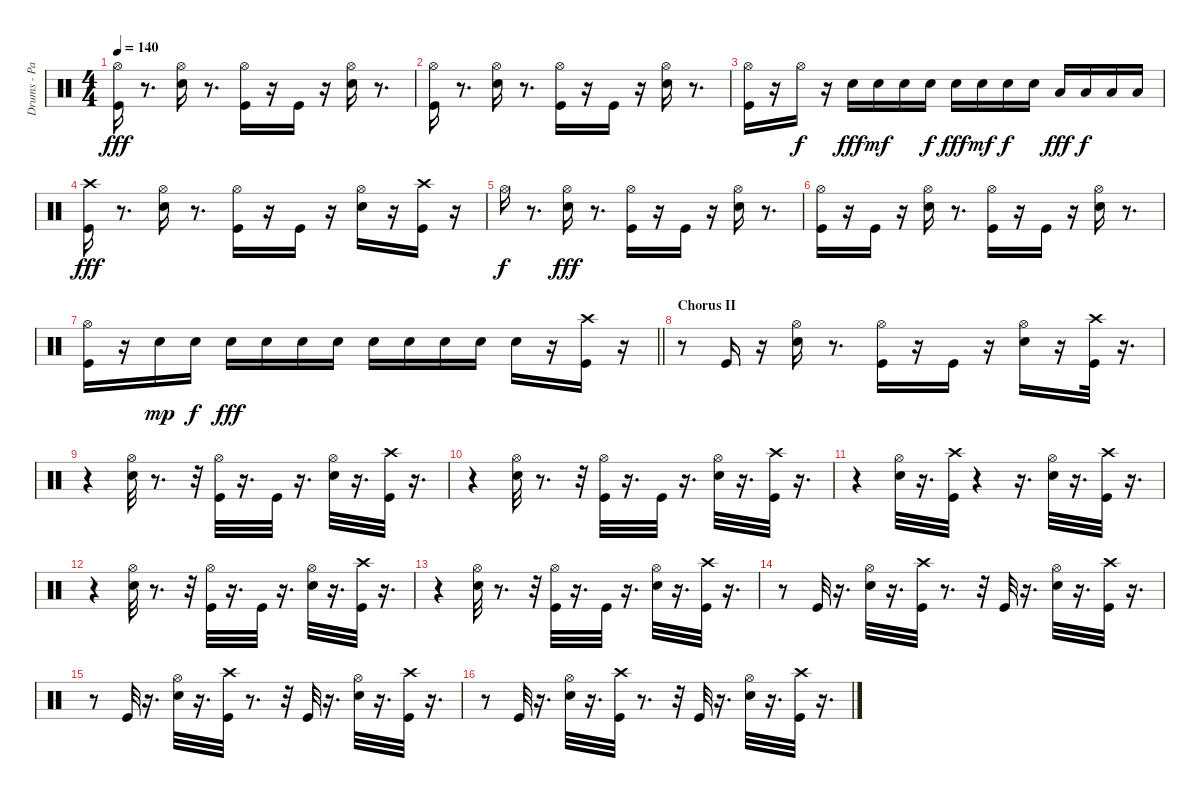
\track ("Drums - Paice" "Drums - Pa") {instrument percussion}
\staff {score}
\articulation defaults
\ts (4 4)
\tempo 140
\clef neutral
\ks c
("Hi-Hat (open)" "Kick (hit)").16{dy fff} r.8{d} ("Snare (hit) 2" "Hi-Hat (open)").16 r.8{d} ("Hi-Hat (open)" "Kick (hit)").16 r.16 "Kick (hit)".16 r.16 ("Hi-Hat (open)" "Snare (hit) 2").16 r.8{d} |
("Hi-Hat (open)" "Kick (hit)").16 r.8{d} ("Hi-Hat (open)" "Snare (hit) 2").16 r.8{d} ("Kick (hit)" "Hi-Hat (open)").16 r.16 "Kick (hit)".16 r.16 ("Snare (hit) 2" "Hi-Hat (open)").16 r.8{d} |
("Hi-Hat (open)" "Kick (hit)").16 r.16 "Hi-Hat (open)".16{dy f} r.16 "Snare (hit) 2".16{dy fff} "Snare (hit) 2".16{dy mf} "Snare (hit) 2".16 "Snare (hit) 2".16{dy f} "Snare (hit) 2".16{dy fff} "Snare (hit) 2".16{dy mf} "Snare (hit) 2".16{dy f} "Snare (hit) 2".16 "Low Tom (hit)".16{dy fff} "Low Tom (hit)".16{dy f} "Low Tom (hit)".16 "Low Tom (hit)".16 |
("Crash high (hit)" "Kick (hit)").16{dy fff} r.8{d} ("Snare (hit) 2" "Hi-Hat (open)").16 r.8{d} ("Hi-Hat (open)" "Kick (hit)").16 r.16 "Kick (hit)".16 r.16 ("Hi-Hat (open)" "Snare (hit) 2").16 r.16 ("Crash high (hit)" "Kick (hit)").16 r.16 |
"Hi-Hat (open)".16{dy f} r.8{d} ("Hi-Hat (open)" "Snare (hit) 2").16{dy fff} r.8{d} ("Kick (hit)" "Hi-Hat (open)").16 r.16 "Kick (hit)".16 r.16 ("Hi-Hat (open)" "Snare (hit) 2").16 r.8{d} |
("Kick (hit)" "Hi-Hat (open)").16 r.16 "Kick (hit)".16 r.16 ("Snare (hit) 2" "Hi-Hat (open)").16 r.8{d} ("Kick (hit)" "Hi-Hat (open)").16 r.16 "Kick (hit)".16 r.16 ("Hi-Hat (open)" "Snare (hit) 2").16 r.8{d} |
\barLineRight lightlight
("Kick (hit)" "Hi-Hat (open)").16 r.16 "Snare (hit) 2".16{dy mp} "Snare (hit) 2".16{dy f} "Snare (hit) 2".16{dy fff} "Snare (hit) 2".16 "Snare (hit) 2".16 "Snare (hit) 2".16 "Snare (hit) 2".16 "Snare (hit) 2".16 "Snare (hit) 2".16 "Snare (hit) 2".16 "Snare (hit) 2".16 r.16 ("Crash high (hit)" "Kick (hit)").16 r.16 |
\section ("" "Chorus II")
r.8 "Kick (hit)".16 r.16 ("Hi-Hat (open)" "Snare (hit) 2").16 r.8{d} ("Hi-Hat (open)" "Kick (hit)").16 r.16 "Kick (hit)".16 r.16 ("Snare (hit) 2" "Hi-Hat (open)").16 r.16 ("Kick (hit)" "Crash high (hit)").32 r.16{d} |
r.4 ("Snare (hit) 2" "Hi-Hat (open)").32 r.8{d} r.32 ("Hi-Hat (open)" "Kick (hit)").32 r.16{d} "Kick (hit)".32 r.16{d} ("Snare (hit) 2" "Hi-Hat (open)").32 r.16{d} ("Crash high (hit)" "Kick (hit)").32 r.16{d} |
r.4 ("Snare (hit) 2" "Hi-Hat (open)").32 r.8{d} r.32 ("Kick (hit)" "Hi-Hat (open)").32 r.16{d} "Kick (hit)".32 r.16{d} ("Hi-Hat (open)" "Snare (hit) 2").32 r.16{d} ("Crash high (hit)" "Kick (hit)").32 r.16{d} |
r.4 ("Snare (hit) 2" "Hi-Hat (open)").32 r.16{d} ("Crash high (hit)" "Kick (hit)").32 r.4 r.16{d} ("Snare (hit) 2" "Hi-Hat (open)").32 r.16{d} ("Crash high (hit)" "Kick (hit)").32 r.16{d} |
r.4 ("Hi-Hat (open)" "Snare (hit) 2").32 r.8{d} r.32 ("Hi-Hat (open)" "Kick (hit)").32 r.16{d} "Kick (hit)".32 r.16{d} ("Hi-Hat (open)" "Snare (hit) 2").32 r.16{d} ("Crash high (hit)" "Kick (hit)").32 r.16{d} |
r.4 ("Hi-Hat (open)" "Snare (hit) 2").32 r.8{d} r.32 ("Hi-Hat (open)" "Kick (hit)").32 r.16{d} "Kick (hit)".32 r.16{d} ("Snare (hit) 2" "Hi-Hat (open)").32 r.16{d} ("Crash high (hit)" "Kick (hit)").32 r.16{d} |
r.8 "Kick (hit)".32 r.16{d} ("Hi-Hat (open)" "Snare (hit) 2").32 r.16{d} ("Kick (hit)" "Crash high (hit)").32 r.8{d} r.32 "Kick (hit)".32 r.16{d} ("Hi-Hat (open)" "Snare (hit) 2").32 r.16{d} ("Crash high (hit)" "Kick (hit)").32 r.16{d} |
r.8 "Kick (hit)".32 r.16{d} ("Snare (hit) 2" "Hi-Hat (open)").32 r.16{d} ("Crash high (hit)" "Kick (hit)").32 r.8{d} r.32 "Kick (hit)".32 r.16{d} ("Hi-Hat (open)" "Snare (hit) 2").32 r.16{d} ("Kick (hit)" "Crash high (hit)").32 r.16{d} |
r.8 "Kick (hit)".32 r.16{d} ("Snare (hit) 2" "Hi-Hat (open)").32 r.16{d} ("Kick (hit)" "Crash high (hit)").32 r.8{d} r.32 "Kick (hit)".32 r.16{d} ("Snare (hit) 2" "Hi-Hat (open)").32 r.16{d} ("Kick (hit)" "Crash high (hit)").32 r.16{d}
